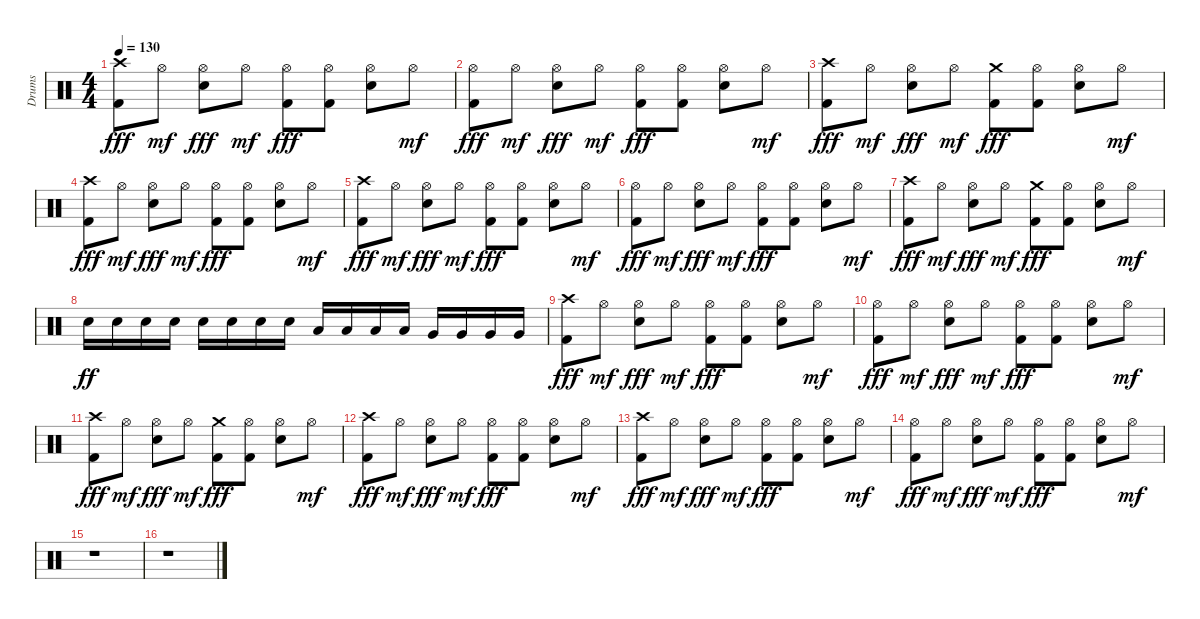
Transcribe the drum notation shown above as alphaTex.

\track ("Drums" "Drums") {instrument percussion}
\staff {score}
\articulation defaults
\ts (4 4)
\tempo 130
\clef neutral
\ks c
("Crash high (hit)" "Kick (hit) 2").8{dy fff} "Hi-Hat (open)".8{dy mf} ("Hi-Hat (open)" "Snare (hit) 2").8{dy fff} "Hi-Hat (open)".8{dy mf} ("Hi-Hat (open)" "Kick (hit) 2").8{dy fff} ("Hi-Hat (open)" "Kick (hit) 2").8 ("Hi-Hat (open)" "Snare (hit) 2").8 "Hi-Hat (open)".8{dy mf} |
("Hi-Hat (open)" "Kick (hit) 2").8{dy fff} "Hi-Hat (open)".8{dy mf} ("Hi-Hat (open)" "Snare (hit) 2").8{dy fff} "Hi-Hat (open)".8{dy mf} ("Hi-Hat (open)" "Kick (hit) 2").8{dy fff} ("Hi-Hat (open)" "Kick (hit) 2").8 ("Hi-Hat (open)" "Snare (hit) 2").8 "Hi-Hat (open)".8{dy mf} |
("Crash high (hit)" "Kick (hit) 2").8{dy fff} "Hi-Hat (open)".8{dy mf} ("Hi-Hat (open)" "Snare (hit) 2").8{dy fff} "Hi-Hat (open)".8{dy mf} ("Crash medium (hit)" "Kick (hit) 2").8{dy fff} ("Hi-Hat (open)" "Kick (hit) 2").8 ("Hi-Hat (open)" "Snare (hit) 2").8 "Hi-Hat (open)".8{dy mf} |
("Crash high (hit)" "Kick (hit) 2").8{dy fff} "Hi-Hat (open)".8{dy mf} ("Hi-Hat (open)" "Snare (hit) 2").8{dy fff} "Hi-Hat (open)".8{dy mf} ("Hi-Hat (open)" "Kick (hit) 2").8{dy fff} ("Hi-Hat (open)" "Kick (hit) 2").8 ("Hi-Hat (open)" "Snare (hit) 2").8 "Hi-Hat (open)".8{dy mf} |
("Crash high (hit)" "Kick (hit) 2").8{dy fff} "Hi-Hat (open)".8{dy mf} ("Hi-Hat (open)" "Snare (hit) 2").8{dy fff} "Hi-Hat (open)".8{dy mf} ("Hi-Hat (open)" "Kick (hit) 2").8{dy fff} ("Hi-Hat (open)" "Kick (hit) 2").8 ("Hi-Hat (open)" "Snare (hit) 2").8 "Hi-Hat (open)".8{dy mf} |
("Hi-Hat (open)" "Kick (hit) 2").8{dy fff} "Hi-Hat (open)".8{dy mf} ("Hi-Hat (open)" "Snare (hit) 2").8{dy fff} "Hi-Hat (open)".8{dy mf} ("Hi-Hat (open)" "Kick (hit) 2").8{dy fff} ("Hi-Hat (open)" "Kick (hit) 2").8 ("Hi-Hat (open)" "Snare (hit) 2").8 "Hi-Hat (open)".8{dy mf} |
("Crash high (hit)" "Kick (hit) 2").8{dy fff} "Hi-Hat (open)".8{dy mf} ("Hi-Hat (open)" "Snare (hit) 2").8{dy fff} "Hi-Hat (open)".8{dy mf} ("Crash medium (hit)" "Kick (hit) 2").8{dy fff} ("Hi-Hat (open)" "Kick (hit) 2").8 ("Hi-Hat (open)" "Snare (hit) 2").8 "Hi-Hat (open)".8{dy mf} |
"Snare (hit) 2".16{dy ff} "Snare (hit) 2".16 "Snare (hit) 2".16 "Snare (hit) 2".16 "Snare (hit) 2".16 "Snare (hit) 2".16 "Snare (hit) 2".16 "Snare (hit) 2".16 "Low Tom (hit)".16 "Low Tom (hit)".16 "Low Tom (hit)".16 "Low Tom (hit)".16 "Very Low Tom (hit)".16 "Very Low Tom (hit)".16 "Very Low Tom (hit)".16 "Very Low Tom (hit)".16 |
("Crash high (hit)" "Kick (hit) 2").8{dy fff} "Hi-Hat (open)".8{dy mf} ("Hi-Hat (open)" "Snare (hit) 2").8{dy fff} "Hi-Hat (open)".8{dy mf} ("Hi-Hat (open)" "Kick (hit) 2").8{dy fff} ("Hi-Hat (open)" "Kick (hit) 2").8 ("Hi-Hat (open)" "Snare (hit) 2").8 "Hi-Hat (open)".8{dy mf} |
("Hi-Hat (open)" "Kick (hit) 2").8{dy fff} "Hi-Hat (open)".8{dy mf} ("Hi-Hat (open)" "Snare (hit) 2").8{dy fff} "Hi-Hat (open)".8{dy mf} ("Hi-Hat (open)" "Kick (hit) 2").8{dy fff} ("Hi-Hat (open)" "Kick (hit) 2").8 ("Hi-Hat (open)" "Snare (hit) 2").8 "Hi-Hat (open)".8{dy mf} |
("Crash high (hit)" "Kick (hit) 2").8{dy fff} "Hi-Hat (open)".8{dy mf} ("Hi-Hat (open)" "Snare (hit) 2").8{dy fff} "Hi-Hat (open)".8{dy mf} ("Crash medium (hit)" "Kick (hit) 2").8{dy fff} ("Hi-Hat (open)" "Kick (hit) 2").8 ("Hi-Hat (open)" "Snare (hit) 2").8 "Hi-Hat (open)".8{dy mf} |
("Crash high (hit)" "Kick (hit) 2").8{dy fff} "Hi-Hat (open)".8{dy mf} ("Hi-Hat (open)" "Snare (hit) 2").8{dy fff} "Hi-Hat (open)".8{dy mf} ("Hi-Hat (open)" "Kick (hit) 2").8{dy fff} ("Hi-Hat (open)" "Kick (hit) 2").8 ("Hi-Hat (open)" "Snare (hit) 2").8 "Hi-Hat (open)".8{dy mf} |
("Crash high (hit)" "Kick (hit) 2").8{dy fff} "Hi-Hat (open)".8{dy mf} ("Hi-Hat (open)" "Snare (hit) 2").8{dy fff} "Hi-Hat (open)".8{dy mf} ("Hi-Hat (open)" "Kick (hit) 2").8{dy fff} ("Hi-Hat (open)" "Kick (hit) 2").8 ("Hi-Hat (open)" "Snare (hit) 2").8 "Hi-Hat (open)".8{dy mf} |
("Hi-Hat (open)" "Kick (hit) 2").8{dy fff} "Hi-Hat (open)".8{dy mf} ("Hi-Hat (open)" "Snare (hit) 2").8{dy fff} "Hi-Hat (open)".8{dy mf} ("Hi-Hat (open)" "Kick (hit) 2").8{dy fff} ("Hi-Hat (open)" "Kick (hit) 2").8 ("Hi-Hat (open)" "Snare (hit) 2").8 "Hi-Hat (open)".8{dy mf} |
r.1 |
r.1
